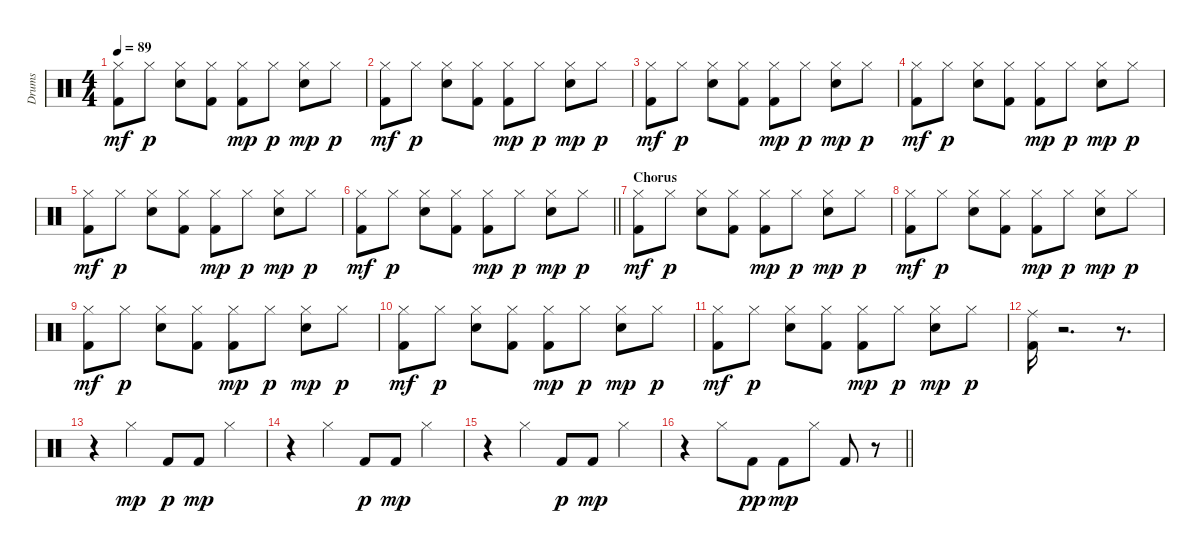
\track ("Drums" "Drums") {instrument percussion}
\staff {score}
\articulation defaults
\ts (4 4)
\tempo 89
\clef neutral
\ks c
("Hi-Hat (closed)" "Kick (hit) 2").8{dy mf} "Hi-Hat (closed)".8{dy p} ("Snare (hit) 2" "Hi-Hat (closed)").8 ("Kick (hit) 2" "Hi-Hat (closed)").8 ("Kick (hit) 2" "Hi-Hat (closed)").8{dy mp} "Hi-Hat (closed)".8{dy p} ("Snare (hit) 2" "Hi-Hat (closed)").8{dy mp} "Hi-Hat (closed)".8{dy p} |
("Hi-Hat (closed)" "Kick (hit) 2").8{dy mf} "Hi-Hat (closed)".8{dy p} ("Snare (hit) 2" "Hi-Hat (closed)").8 ("Kick (hit) 2" "Hi-Hat (closed)").8 ("Kick (hit) 2" "Hi-Hat (closed)").8{dy mp} "Hi-Hat (closed)".8{dy p} ("Snare (hit) 2" "Hi-Hat (closed)").8{dy mp} "Hi-Hat (closed)".8{dy p} |
("Hi-Hat (closed)" "Kick (hit) 2").8{dy mf} "Hi-Hat (closed)".8{dy p} ("Snare (hit) 2" "Hi-Hat (closed)").8 ("Kick (hit) 2" "Hi-Hat (closed)").8 ("Kick (hit) 2" "Hi-Hat (closed)").8{dy mp} "Hi-Hat (closed)".8{dy p} ("Snare (hit) 2" "Hi-Hat (closed)").8{dy mp} "Hi-Hat (closed)".8{dy p} |
("Hi-Hat (closed)" "Kick (hit) 2").8{dy mf} "Hi-Hat (closed)".8{dy p} ("Snare (hit) 2" "Hi-Hat (closed)").8 ("Kick (hit) 2" "Hi-Hat (closed)").8 ("Kick (hit) 2" "Hi-Hat (closed)").8{dy mp} "Hi-Hat (closed)".8{dy p} ("Snare (hit) 2" "Hi-Hat (closed)").8{dy mp} "Hi-Hat (closed)".8{dy p} |
("Hi-Hat (closed)" "Kick (hit) 2").8{dy mf} "Hi-Hat (closed)".8{dy p} ("Snare (hit) 2" "Hi-Hat (closed)").8 ("Kick (hit) 2" "Hi-Hat (closed)").8 ("Kick (hit) 2" "Hi-Hat (closed)").8{dy mp} "Hi-Hat (closed)".8{dy p} ("Snare (hit) 2" "Hi-Hat (closed)").8{dy mp} "Hi-Hat (closed)".8{dy p} |
\barLineRight lightlight
("Hi-Hat (closed)" "Kick (hit) 2").8{dy mf} "Hi-Hat (closed)".8{dy p} ("Snare (hit) 2" "Hi-Hat (closed)").8 ("Kick (hit) 2" "Hi-Hat (closed)").8 ("Kick (hit) 2" "Hi-Hat (closed)").8{dy mp} "Hi-Hat (closed)".8{dy p} ("Snare (hit) 2" "Hi-Hat (closed)").8{dy mp} "Hi-Hat (closed)".8{dy p} |
\section ("" "Chorus")
("Hi-Hat (closed)" "Kick (hit) 2").8{dy mf} "Hi-Hat (closed)".8{dy p} ("Snare (hit) 2" "Hi-Hat (closed)").8 ("Kick (hit) 2" "Hi-Hat (closed)").8 ("Kick (hit) 2" "Hi-Hat (closed)").8{dy mp} "Hi-Hat (closed)".8{dy p} ("Snare (hit) 2" "Hi-Hat (closed)").8{dy mp} "Hi-Hat (closed)".8{dy p} |
("Hi-Hat (closed)" "Kick (hit) 2").8{dy mf} "Hi-Hat (closed)".8{dy p} ("Snare (hit) 2" "Hi-Hat (closed)").8 ("Kick (hit) 2" "Hi-Hat (closed)").8 ("Kick (hit) 2" "Hi-Hat (closed)").8{dy mp} "Hi-Hat (closed)".8{dy p} ("Snare (hit) 2" "Hi-Hat (closed)").8{dy mp} "Hi-Hat (closed)".8{dy p} |
("Hi-Hat (closed)" "Kick (hit) 2").8{dy mf} "Hi-Hat (closed)".8{dy p} ("Snare (hit) 2" "Hi-Hat (closed)").8 ("Kick (hit) 2" "Hi-Hat (closed)").8 ("Kick (hit) 2" "Hi-Hat (closed)").8{dy mp} "Hi-Hat (closed)".8{dy p} ("Snare (hit) 2" "Hi-Hat (closed)").8{dy mp} "Hi-Hat (closed)".8{dy p} |
("Hi-Hat (closed)" "Kick (hit) 2").8{dy mf} "Hi-Hat (closed)".8{dy p} ("Snare (hit) 2" "Hi-Hat (closed)").8 ("Kick (hit) 2" "Hi-Hat (closed)").8 ("Kick (hit) 2" "Hi-Hat (closed)").8{dy mp} "Hi-Hat (closed)".8{dy p} ("Snare (hit) 2" "Hi-Hat (closed)").8{dy mp} "Hi-Hat (closed)".8{dy p} |
("Hi-Hat (closed)" "Kick (hit) 2").8{dy mf} "Hi-Hat (closed)".8{dy p} ("Snare (hit) 2" "Hi-Hat (closed)").8 ("Kick (hit) 2" "Hi-Hat (closed)").8 ("Kick (hit) 2" "Hi-Hat (closed)").8{dy mp} "Hi-Hat (closed)".8{dy p} ("Snare (hit) 2" "Hi-Hat (closed)").8{dy mp} "Hi-Hat (closed)".8{dy p} |
("Ride (middle)" "Kick (hit) 2").16 r.2{d} r.8{d} |
r.4 "Hi-Hat (closed)".4{dy mp} "Kick (hit) 2".8{dy p} "Kick (hit) 2".8{dy mp} "Hi-Hat (closed)".4 |
r.4 "Hi-Hat (closed)".4 "Kick (hit) 2".8{dy p} "Kick (hit) 2".8{dy mp} "Hi-Hat (closed)".4 |
r.4 "Hi-Hat (closed)".4 "Kick (hit) 2".8{dy p} "Kick (hit) 2".8{dy mp} "Hi-Hat (closed)".4 |
\barLineRight lightlight
r.4 "Hi-Hat (closed)".8 "Kick (hit) 2".8{dy pp} "Kick (hit) 2".8{dy mp} "Hi-Hat (closed)".8 "Kick (hit) 2".8 r.8
